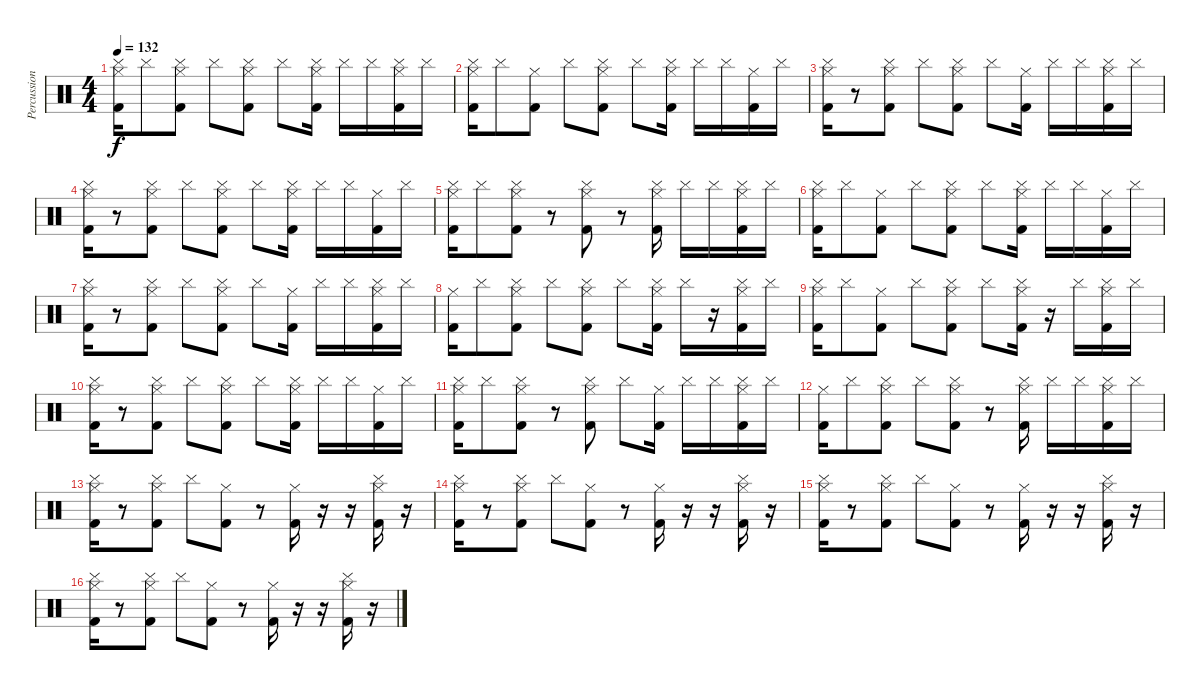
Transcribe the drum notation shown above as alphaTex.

\track ("Percussions" "Percussion") {instrument percussion}
\staff {score}
\articulation defaults
\ts (4 4)
\tempo 132
\clef neutral
\ks c
("Cymbal (hit)" "Kick (hit) 2" "Hi-Hat (closed)").16{dy f} "Cymbal (hit)".8 ("Cymbal (hit)" "Kick (hit) 2" "Hi-Hat (closed)").8 "Cymbal (hit)".8 ("Cymbal (hit)" "Kick (hit) 2" "Hi-Hat (closed)").8 "Cymbal (hit)".8 ("Cymbal (hit)" "Kick (hit) 2" "Hi-Hat (closed)").16 "Cymbal (hit)".16 "Cymbal (hit)".16 ("Cymbal (hit)" "Kick (hit) 2" "Hi-Hat (closed)").16 "Cymbal (hit)".16 |
("Cymbal (hit)" "Kick (hit) 2" "Hi-Hat (closed)").16 "Cymbal (hit)".8 ("Kick (hit) 2" "Hi-Hat (closed)").8 "Cymbal (hit)".8 ("Cymbal (hit)" "Kick (hit) 2" "Hi-Hat (closed)").8 "Cymbal (hit)".8 ("Cymbal (hit)" "Kick (hit) 2" "Hi-Hat (closed)").16 "Cymbal (hit)".16 "Cymbal (hit)".16 ("Kick (hit) 2" "Hi-Hat (closed)").16 "Cymbal (hit)".16 |
("Cymbal (hit)" "Kick (hit) 2" "Hi-Hat (closed)").16 r.8 ("Cymbal (hit)" "Kick (hit) 2" "Hi-Hat (closed)").8 "Cymbal (hit)".8 ("Cymbal (hit)" "Kick (hit) 2" "Hi-Hat (closed)").8 "Cymbal (hit)".8 ("Kick (hit) 2" "Hi-Hat (closed)").16 "Cymbal (hit)".16 "Cymbal (hit)".16 ("Cymbal (hit)" "Kick (hit) 2" "Hi-Hat (closed)").16 "Cymbal (hit)".16 |
("Cymbal (hit)" "Kick (hit) 2" "Hi-Hat (closed)").16 r.8 ("Cymbal (hit)" "Kick (hit) 2" "Hi-Hat (closed)").8 "Cymbal (hit)".8 ("Cymbal (hit)" "Kick (hit) 2" "Hi-Hat (closed)").8 "Cymbal (hit)".8 ("Cymbal (hit)" "Kick (hit) 2" "Hi-Hat (closed)").16 "Cymbal (hit)".16 "Cymbal (hit)".16 ("Kick (hit) 2" "Hi-Hat (closed)").16 "Cymbal (hit)".16 |
("Cymbal (hit)" "Kick (hit) 2" "Hi-Hat (closed)").16 "Cymbal (hit)".8 ("Cymbal (hit)" "Kick (hit) 2" "Hi-Hat (closed)").8 r.8 ("Cymbal (hit)" "Kick (hit) 2" "Hi-Hat (closed)").8 r.8 ("Cymbal (hit)" "Kick (hit) 2" "Hi-Hat (closed)").16 "Cymbal (hit)".16 "Cymbal (hit)".16 ("Cymbal (hit)" "Kick (hit) 2" "Hi-Hat (closed)").16 "Cymbal (hit)".16 |
("Cymbal (hit)" "Kick (hit) 2" "Hi-Hat (closed)").16 "Cymbal (hit)".8 ("Kick (hit) 2" "Hi-Hat (closed)").8 "Cymbal (hit)".8 ("Cymbal (hit)" "Kick (hit) 2" "Hi-Hat (closed)").8 "Cymbal (hit)".8 ("Cymbal (hit)" "Kick (hit) 2" "Hi-Hat (closed)").16 "Cymbal (hit)".16 "Cymbal (hit)".16 ("Kick (hit) 2" "Hi-Hat (closed)").16 "Cymbal (hit)".16 |
("Cymbal (hit)" "Kick (hit) 2" "Hi-Hat (closed)").16 r.8 ("Cymbal (hit)" "Kick (hit) 2" "Hi-Hat (closed)").8 "Cymbal (hit)".8 ("Cymbal (hit)" "Kick (hit) 2" "Hi-Hat (closed)").8 "Cymbal (hit)".8 ("Kick (hit) 2" "Hi-Hat (closed)").16 "Cymbal (hit)".16 "Cymbal (hit)".16 ("Cymbal (hit)" "Kick (hit) 2" "Hi-Hat (closed)").16 "Cymbal (hit)".16 |
("Kick (hit) 2" "Hi-Hat (closed)").16 "Cymbal (hit)".8 ("Cymbal (hit)" "Kick (hit) 2" "Hi-Hat (closed)").8 "Cymbal (hit)".8 ("Cymbal (hit)" "Kick (hit) 2" "Hi-Hat (closed)").8 "Cymbal (hit)".8 ("Cymbal (hit)" "Kick (hit) 2" "Hi-Hat (closed)").16 "Cymbal (hit)".16 r.16 ("Cymbal (hit)" "Kick (hit) 2" "Hi-Hat (closed)").16 "Cymbal (hit)".16 |
("Cymbal (hit)" "Kick (hit) 2" "Hi-Hat (closed)").16 "Cymbal (hit)".8 ("Kick (hit) 2" "Hi-Hat (closed)").8 "Cymbal (hit)".8 ("Cymbal (hit)" "Kick (hit) 2" "Hi-Hat (closed)").8 "Cymbal (hit)".8 ("Cymbal (hit)" "Kick (hit) 2" "Hi-Hat (closed)").16 r.16 "Cymbal (hit)".16 ("Cymbal (hit)" "Kick (hit) 2" "Hi-Hat (closed)").16 "Cymbal (hit)".16 |
("Cymbal (hit)" "Kick (hit) 2" "Hi-Hat (closed)").16 r.8 ("Cymbal (hit)" "Kick (hit) 2" "Hi-Hat (closed)").8 "Cymbal (hit)".8 ("Cymbal (hit)" "Kick (hit) 2" "Hi-Hat (closed)").8 "Cymbal (hit)".8 ("Cymbal (hit)" "Kick (hit) 2" "Hi-Hat (closed)").16 "Cymbal (hit)".16 "Cymbal (hit)".16 ("Kick (hit) 2" "Hi-Hat (closed)").16 "Cymbal (hit)".16 |
("Cymbal (hit)" "Kick (hit) 2" "Hi-Hat (closed)").16 "Cymbal (hit)".8 ("Cymbal (hit)" "Kick (hit) 2" "Hi-Hat (closed)").8 r.8 ("Cymbal (hit)" "Kick (hit) 2" "Hi-Hat (closed)").8 "Cymbal (hit)".8 ("Kick (hit) 2" "Hi-Hat (closed)").16 "Cymbal (hit)".16 "Cymbal (hit)".16 ("Cymbal (hit)" "Kick (hit) 2" "Hi-Hat (closed)").16 "Cymbal (hit)".16 |
("Kick (hit) 2" "Hi-Hat (closed)").16 "Cymbal (hit)".8 ("Cymbal (hit)" "Kick (hit) 2" "Hi-Hat (closed)").8 "Cymbal (hit)".8 ("Cymbal (hit)" "Kick (hit) 2" "Hi-Hat (closed)").8 r.8 ("Cymbal (hit)" "Kick (hit) 2" "Hi-Hat (closed)").16 "Cymbal (hit)".16 "Cymbal (hit)".16 ("Cymbal (hit)" "Kick (hit) 2" "Hi-Hat (closed)").16 "Cymbal (hit)".16 |
("Cymbal (hit)" "Kick (hit) 2" "Hi-Hat (closed)").16 r.8 ("Cymbal (hit)" "Kick (hit) 2" "Hi-Hat (closed)").8 "Cymbal (hit)".8 ("Kick (hit) 2" "Hi-Hat (closed)").8 r.8 ("Kick (hit) 2" "Hi-Hat (closed)").16 r.16 r.16 ("Cymbal (hit)" "Kick (hit) 2" "Hi-Hat (closed)").16 r.16 |
("Cymbal (hit)" "Kick (hit) 2" "Hi-Hat (closed)").16 r.8 ("Cymbal (hit)" "Kick (hit) 2" "Hi-Hat (closed)").8 "Cymbal (hit)".8 ("Kick (hit) 2" "Hi-Hat (closed)").8 r.8 ("Kick (hit) 2" "Hi-Hat (closed)").16 r.16 r.16 ("Cymbal (hit)" "Kick (hit) 2" "Hi-Hat (closed)").16 r.16 |
("Cymbal (hit)" "Kick (hit) 2" "Hi-Hat (closed)").16 r.8 ("Cymbal (hit)" "Kick (hit) 2" "Hi-Hat (closed)").8 "Cymbal (hit)".8 ("Kick (hit) 2" "Hi-Hat (closed)").8 r.8 ("Kick (hit) 2" "Hi-Hat (closed)").16 r.16 r.16 ("Cymbal (hit)" "Kick (hit) 2" "Hi-Hat (closed)").16 r.16 |
("Cymbal (hit)" "Kick (hit) 2" "Hi-Hat (closed)").16 r.8 ("Cymbal (hit)" "Kick (hit) 2" "Hi-Hat (closed)").8 "Cymbal (hit)".8 ("Kick (hit) 2" "Hi-Hat (closed)").8 r.8 ("Kick (hit) 2" "Hi-Hat (closed)").16 r.16 r.16 ("Cymbal (hit)" "Kick (hit) 2" "Hi-Hat (closed)").16 r.16
